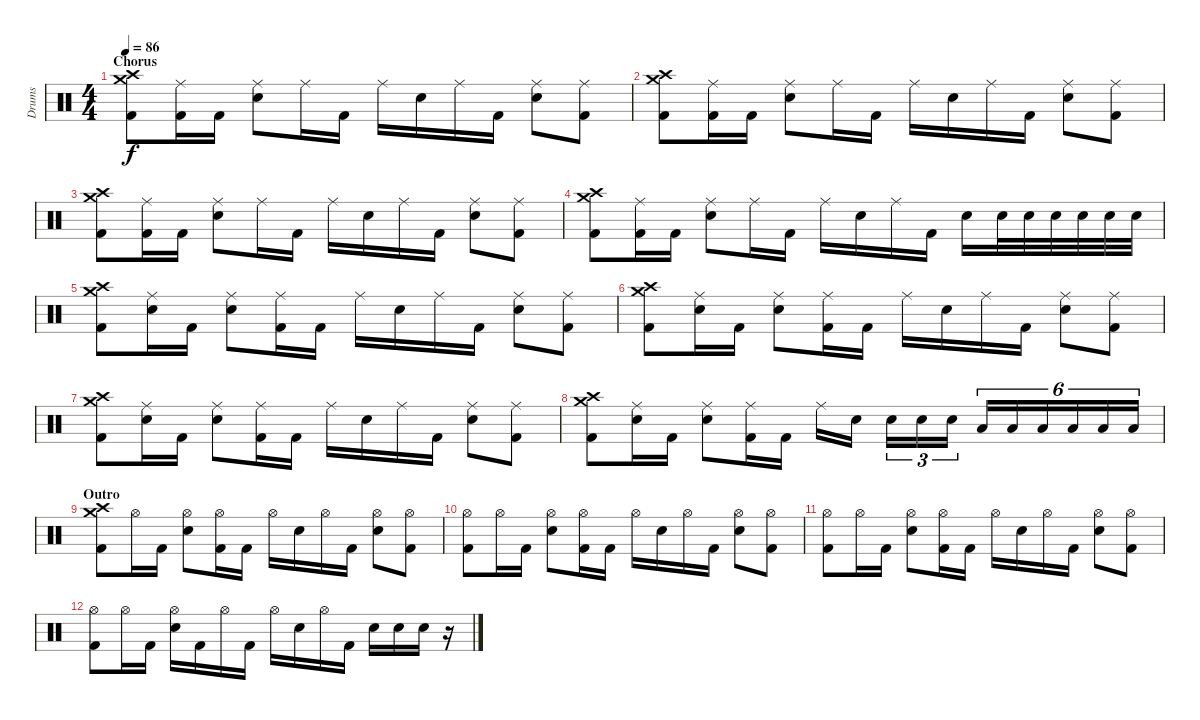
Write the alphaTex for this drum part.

\track ("Drums" "Drums") {instrument percussion}
\staff {score}
\articulation defaults
\ts (4 4)
\section ("" "Chorus")
\tempo 86
\clef neutral
\ks c
("Crash high (hit)" "Crash medium (hit)" "Kick (hit) 2").8{dy f} ("Ride (middle)" "Kick (hit) 2").16 "Kick (hit) 2".16 ("Ride (middle)" "Snare (hit) 2").8 "Ride (middle)".16 "Kick (hit) 2".16 "Ride (middle)".16 "Snare (hit) 2".16 "Ride (middle)".16 "Kick (hit) 2".16 ("Ride (middle)" "Snare (hit) 2").8 ("Ride (middle)" "Kick (hit) 2").8 |
("Crash high (hit)" "Crash medium (hit)" "Kick (hit) 2").8 ("Ride (middle)" "Kick (hit) 2").16 "Kick (hit) 2".16 ("Ride (middle)" "Snare (hit) 2").8 "Ride (middle)".16 "Kick (hit) 2".16 "Ride (middle)".16 "Snare (hit) 2".16 "Ride (middle)".16 "Kick (hit) 2".16 ("Ride (middle)" "Snare (hit) 2").8 ("Ride (middle)" "Kick (hit) 2").8 |
("Crash high (hit)" "Crash medium (hit)" "Kick (hit) 2").8 ("Ride (middle)" "Kick (hit) 2").16 "Kick (hit) 2".16 ("Ride (middle)" "Snare (hit) 2").8 "Ride (middle)".16 "Kick (hit) 2".16 "Ride (middle)".16 "Snare (hit) 2".16 "Ride (middle)".16 "Kick (hit) 2".16 ("Ride (middle)" "Snare (hit) 2").8 ("Ride (middle)" "Kick (hit) 2").8 |
("Crash high (hit)" "Crash medium (hit)" "Kick (hit) 2").8 ("Ride (middle)" "Kick (hit) 2").16 "Kick (hit) 2".16 ("Ride (middle)" "Snare (hit) 2").8 "Ride (middle)".16 "Kick (hit) 2".16 "Ride (middle)".16 "Snare (hit) 2".16 "Ride (middle)".16 "Kick (hit) 2".16 "Snare (hit) 2".16 "Snare (hit) 2".32 "Snare (hit) 2".32 "Snare (hit) 2".32 "Snare (hit) 2".32 "Snare (hit) 2".32 "Snare (hit) 2".32 |
("Crash high (hit)" "Crash medium (hit)" "Kick (hit) 2").8 ("Ride (middle)" "Snare (hit) 2").16 "Kick (hit) 2".16 ("Ride (middle)" "Snare (hit) 2").8 ("Ride (middle)" "Kick (hit) 2").16 "Kick (hit) 2".16 "Ride (middle)".16 "Snare (hit) 2".16 "Ride (middle)".16 "Kick (hit) 2".16 ("Ride (middle)" "Snare (hit) 2").8 ("Ride (middle)" "Kick (hit) 2").8 |
("Crash high (hit)" "Crash medium (hit)" "Kick (hit) 2").8 ("Ride (middle)" "Snare (hit) 2").16 "Kick (hit) 2".16 ("Ride (middle)" "Snare (hit) 2").8 ("Ride (middle)" "Kick (hit) 2").16 "Kick (hit) 2".16 "Ride (middle)".16 "Snare (hit) 2".16 "Ride (middle)".16 "Kick (hit) 2".16 ("Ride (middle)" "Snare (hit) 2").8 ("Ride (middle)" "Kick (hit) 2").8 |
("Crash high (hit)" "Crash medium (hit)" "Kick (hit) 2").8 ("Ride (middle)" "Snare (hit) 2").16 "Kick (hit) 2".16 ("Ride (middle)" "Snare (hit) 2").8 ("Ride (middle)" "Kick (hit) 2").16 "Kick (hit) 2".16 "Ride (middle)".16 "Snare (hit) 2".16 "Ride (middle)".16 "Kick (hit) 2".16 ("Ride (middle)" "Snare (hit) 2").8 ("Ride (middle)" "Kick (hit) 2").8 |
("Crash high (hit)" "Crash medium (hit)" "Kick (hit) 2").8 ("Ride (middle)" "Snare (hit) 2").16 "Kick (hit) 2".16 ("Ride (middle)" "Snare (hit) 2").8 ("Ride (middle)" "Kick (hit) 2").16 "Kick (hit) 2".16 "Ride (middle)".16 "Snare (hit) 2".16 "Snare (hit) 2".16{tu (3 2)} "Snare (hit) 2".16{tu (3 2)} "Snare (hit) 2".16{tu (3 2)} "Low Tom (hit)".16{tu (6 4)} "Low Tom (hit)".16{tu (6 4)} "Low Tom (hit)".16{tu (6 4)} "Low Floor Tom (hit)".16{tu (6 4)} "Low Floor Tom (hit)".16{tu (6 4)} "Low Floor Tom (hit)".16{tu (6 4)} |
\section ("" "Outro")
("Crash high (hit)" "Crash medium (hit)" "Kick (hit) 2").8 "Hi-Hat (open)".16 "Kick (hit) 2".16 ("Hi-Hat (open)" "Snare (hit) 2").8 ("Hi-Hat (open)" "Kick (hit) 2").16 "Kick (hit) 2".16 "Hi-Hat (open)".16 "Snare (hit) 2".16 "Hi-Hat (open)".16 "Kick (hit) 2".16 ("Hi-Hat (open)" "Snare (hit) 2").8 ("Hi-Hat (open)" "Kick (hit) 2").8 |
("Hi-Hat (open)" "Kick (hit) 2").8 "Hi-Hat (open)".16 "Kick (hit) 2".16 ("Hi-Hat (open)" "Snare (hit) 2").8 ("Hi-Hat (open)" "Kick (hit) 2").16 "Kick (hit) 2".16 "Hi-Hat (open)".16 "Snare (hit) 2".16 "Hi-Hat (open)".16 "Kick (hit) 2".16 ("Hi-Hat (open)" "Snare (hit) 2").8 ("Hi-Hat (open)" "Kick (hit) 2").8 |
("Hi-Hat (open)" "Kick (hit) 2").8 "Hi-Hat (open)".16 "Kick (hit) 2".16 ("Hi-Hat (open)" "Snare (hit) 2").8 ("Hi-Hat (open)" "Kick (hit) 2").16 "Kick (hit) 2".16 "Hi-Hat (open)".16 "Snare (hit) 2".16 "Hi-Hat (open)".16 "Kick (hit) 2".16 ("Hi-Hat (open)" "Snare (hit) 2").8 ("Hi-Hat (open)" "Kick (hit) 2").8 |
("Hi-Hat (open)" "Kick (hit) 2").8 "Hi-Hat (open)".16 "Kick (hit) 2".16 ("Hi-Hat (open)" "Snare (hit) 2").16 "Kick (hit) 2".16 "Hi-Hat (open)".16 "Kick (hit) 2".16 "Hi-Hat (open)".16 "Snare (hit) 2".16 "Hi-Hat (open)".16 "Kick (hit) 2".16 "Snare (hit) 2".16 "Snare (hit) 2".16 "Snare (hit) 2".16 r.16
